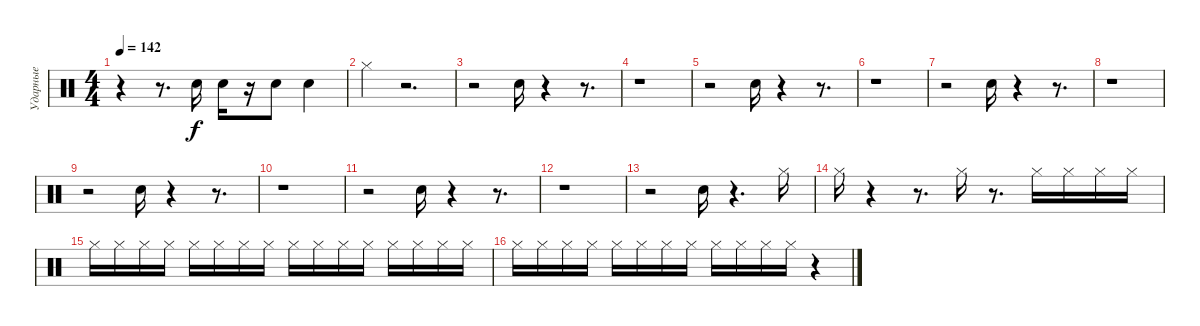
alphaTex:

\track ("Ударные" "Ударные") {instrument percussion}
\staff {score}
\articulation defaults
\ts (4 4)
\tempo 142
\clef neutral
\ks c
r.4{dy f} r.8{d} "Snare (hit) 2".16 "Snare (hit) 2".16 r.16 "Snare (hit) 2".8 "Snare (hit) 2".4 |
"Hi-Hat (closed)".4 r.2{d} |
r.2 "Snare (hit) 2".16 r.4 r.8{d} |
r.1 |
r.2 "Snare (hit) 2".16 r.4 r.8{d} |
r.1 |
r.2 "Snare (hit) 2".16 r.4 r.8{d} |
r.1 |
r.2 "Snare (hit) 2".16 r.4 r.8{d} |
r.1 |
r.2 "Snare (hit) 2".16 r.4 r.8{d} |
r.1 |
r.2 "Snare (hit) 2".16 r.4{d} "Hi-Hat (closed)".16 |
"Hi-Hat (closed)".16 r.4 r.8{d} "Hi-Hat (closed)".16 r.8{d} "Hi-Hat (closed)".16 "Hi-Hat (closed)".16 "Hi-Hat (closed)".16 "Hi-Hat (closed)".16 |
"Hi-Hat (closed)".16 "Hi-Hat (closed)".16 "Hi-Hat (closed)".16 "Hi-Hat (closed)".16 "Hi-Hat (closed)".16 "Hi-Hat (closed)".16 "Hi-Hat (closed)".16 "Hi-Hat (closed)".16 "Hi-Hat (closed)".16 "Hi-Hat (closed)".16 "Hi-Hat (closed)".16 "Hi-Hat (closed)".16 "Hi-Hat (closed)".16 "Hi-Hat (closed)".16 "Hi-Hat (closed)".16 "Hi-Hat (closed)".16 |
"Hi-Hat (closed)".16 "Hi-Hat (closed)".16 "Hi-Hat (closed)".16 "Hi-Hat (closed)".16 "Hi-Hat (closed)".16 "Hi-Hat (closed)".16 "Hi-Hat (closed)".16 "Hi-Hat (closed)".16 "Hi-Hat (closed)".16 "Hi-Hat (closed)".16 "Hi-Hat (closed)".16 "Hi-Hat (closed)".16 r.4
